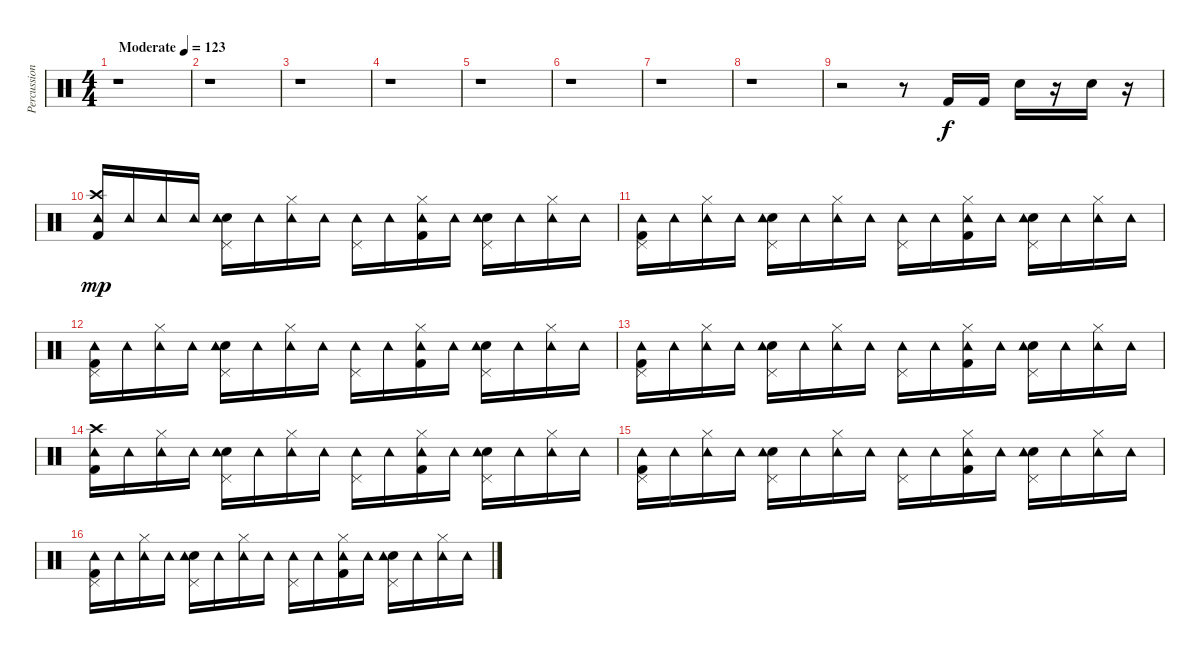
\track ("Percussions" "Percussion") {instrument percussion}
\staff {score}
\articulation defaults
\ts (4 4)
\tempo (123 "Moderate")
\clef neutral
\ks c
r.1{dy f} |
r.1 |
r.1 |
r.1 |
r.1 |
r.1 |
r.1 |
r.1 |
r.2 r.8 "Kick (hit) 2".16 "Kick (hit) 2".16 "Snare (hit) 2".16 r.16 "Snare (hit) 2".16 r.16 |
("Kick (hit) 2" "Crash high (hit)" "Tambourine (hit)").16{dy mp} "Tambourine (hit)".16 "Tambourine (hit)".16 "Tambourine (hit)".16 ("Snare (hit) 2" "Pedal Hi-Hat (hit)" "Tambourine (hit)").16 "Tambourine (hit)".16 ("Hi-Hat (closed)" "Tambourine (hit)").16 "Tambourine (hit)".16 ("Pedal Hi-Hat (hit)" "Tambourine (hit)").16 "Tambourine (hit)".16 ("Kick (hit) 2" "Hi-Hat (closed)" "Tambourine (hit)").16 "Tambourine (hit)".16 ("Snare (hit) 2" "Pedal Hi-Hat (hit)" "Tambourine (hit)").16 "Tambourine (hit)".16 ("Hi-Hat (closed)" "Tambourine (hit)").16 "Tambourine (hit)".16 |
("Kick (hit) 2" "Pedal Hi-Hat (hit)" "Tambourine (hit)").16 "Tambourine (hit)".16 ("Hi-Hat (closed)" "Tambourine (hit)").16 "Tambourine (hit)".16 ("Snare (hit) 2" "Pedal Hi-Hat (hit)" "Tambourine (hit)").16 "Tambourine (hit)".16 ("Hi-Hat (closed)" "Tambourine (hit)").16 "Tambourine (hit)".16 ("Pedal Hi-Hat (hit)" "Tambourine (hit)").16 "Tambourine (hit)".16 ("Kick (hit) 2" "Hi-Hat (closed)" "Tambourine (hit)").16 "Tambourine (hit)".16 ("Snare (hit) 2" "Pedal Hi-Hat (hit)" "Tambourine (hit)").16 "Tambourine (hit)".16 ("Hi-Hat (closed)" "Tambourine (hit)").16 "Tambourine (hit)".16 |
("Kick (hit) 2" "Pedal Hi-Hat (hit)" "Tambourine (hit)").16 "Tambourine (hit)".16 ("Hi-Hat (closed)" "Tambourine (hit)").16 "Tambourine (hit)".16 ("Snare (hit) 2" "Pedal Hi-Hat (hit)" "Tambourine (hit)").16 "Tambourine (hit)".16 ("Hi-Hat (closed)" "Tambourine (hit)").16 "Tambourine (hit)".16 ("Pedal Hi-Hat (hit)" "Tambourine (hit)").16 "Tambourine (hit)".16 ("Kick (hit) 2" "Hi-Hat (closed)" "Tambourine (hit)").16 "Tambourine (hit)".16 ("Snare (hit) 2" "Pedal Hi-Hat (hit)" "Tambourine (hit)").16 "Tambourine (hit)".16 ("Hi-Hat (closed)" "Tambourine (hit)").16 "Tambourine (hit)".16 |
("Kick (hit) 2" "Pedal Hi-Hat (hit)" "Tambourine (hit)").16 "Tambourine (hit)".16 ("Hi-Hat (closed)" "Tambourine (hit)").16 "Tambourine (hit)".16 ("Snare (hit) 2" "Pedal Hi-Hat (hit)" "Tambourine (hit)").16 "Tambourine (hit)".16 ("Hi-Hat (closed)" "Tambourine (hit)").16 "Tambourine (hit)".16 ("Pedal Hi-Hat (hit)" "Tambourine (hit)").16 "Tambourine (hit)".16 ("Kick (hit) 2" "Hi-Hat (closed)" "Tambourine (hit)").16 "Tambourine (hit)".16 ("Snare (hit) 2" "Pedal Hi-Hat (hit)" "Tambourine (hit)").16 "Tambourine (hit)".16 ("Hi-Hat (closed)" "Tambourine (hit)").16 "Tambourine (hit)".16 |
("Kick (hit) 2" "Crash high (hit)" "Tambourine (hit)").16 "Tambourine (hit)".16 ("Hi-Hat (closed)" "Tambourine (hit)").16 "Tambourine (hit)".16 ("Snare (hit) 2" "Pedal Hi-Hat (hit)" "Tambourine (hit)").16 "Tambourine (hit)".16 ("Hi-Hat (closed)" "Tambourine (hit)").16 "Tambourine (hit)".16 ("Pedal Hi-Hat (hit)" "Tambourine (hit)").16 "Tambourine (hit)".16 ("Kick (hit) 2" "Hi-Hat (closed)" "Tambourine (hit)").16 "Tambourine (hit)".16 ("Snare (hit) 2" "Pedal Hi-Hat (hit)" "Tambourine (hit)").16 "Tambourine (hit)".16 ("Hi-Hat (closed)" "Tambourine (hit)").16 "Tambourine (hit)".16 |
("Kick (hit) 2" "Pedal Hi-Hat (hit)" "Tambourine (hit)").16 "Tambourine (hit)".16 ("Hi-Hat (closed)" "Tambourine (hit)").16 "Tambourine (hit)".16 ("Snare (hit) 2" "Pedal Hi-Hat (hit)" "Tambourine (hit)").16 "Tambourine (hit)".16 ("Hi-Hat (closed)" "Tambourine (hit)").16 "Tambourine (hit)".16 ("Pedal Hi-Hat (hit)" "Tambourine (hit)").16 "Tambourine (hit)".16 ("Kick (hit) 2" "Hi-Hat (closed)" "Tambourine (hit)").16 "Tambourine (hit)".16 ("Snare (hit) 2" "Pedal Hi-Hat (hit)" "Tambourine (hit)").16 "Tambourine (hit)".16 ("Hi-Hat (closed)" "Tambourine (hit)").16 "Tambourine (hit)".16 |
("Kick (hit) 2" "Pedal Hi-Hat (hit)" "Tambourine (hit)").16 "Tambourine (hit)".16 ("Hi-Hat (closed)" "Tambourine (hit)").16 "Tambourine (hit)".16 ("Snare (hit) 2" "Pedal Hi-Hat (hit)" "Tambourine (hit)").16 "Tambourine (hit)".16 ("Hi-Hat (closed)" "Tambourine (hit)").16 "Tambourine (hit)".16 ("Pedal Hi-Hat (hit)" "Tambourine (hit)").16 "Tambourine (hit)".16 ("Kick (hit) 2" "Hi-Hat (closed)" "Tambourine (hit)").16 "Tambourine (hit)".16 ("Snare (hit) 2" "Pedal Hi-Hat (hit)" "Tambourine (hit)").16 "Tambourine (hit)".16 ("Hi-Hat (closed)" "Tambourine (hit)").16 "Tambourine (hit)".16
